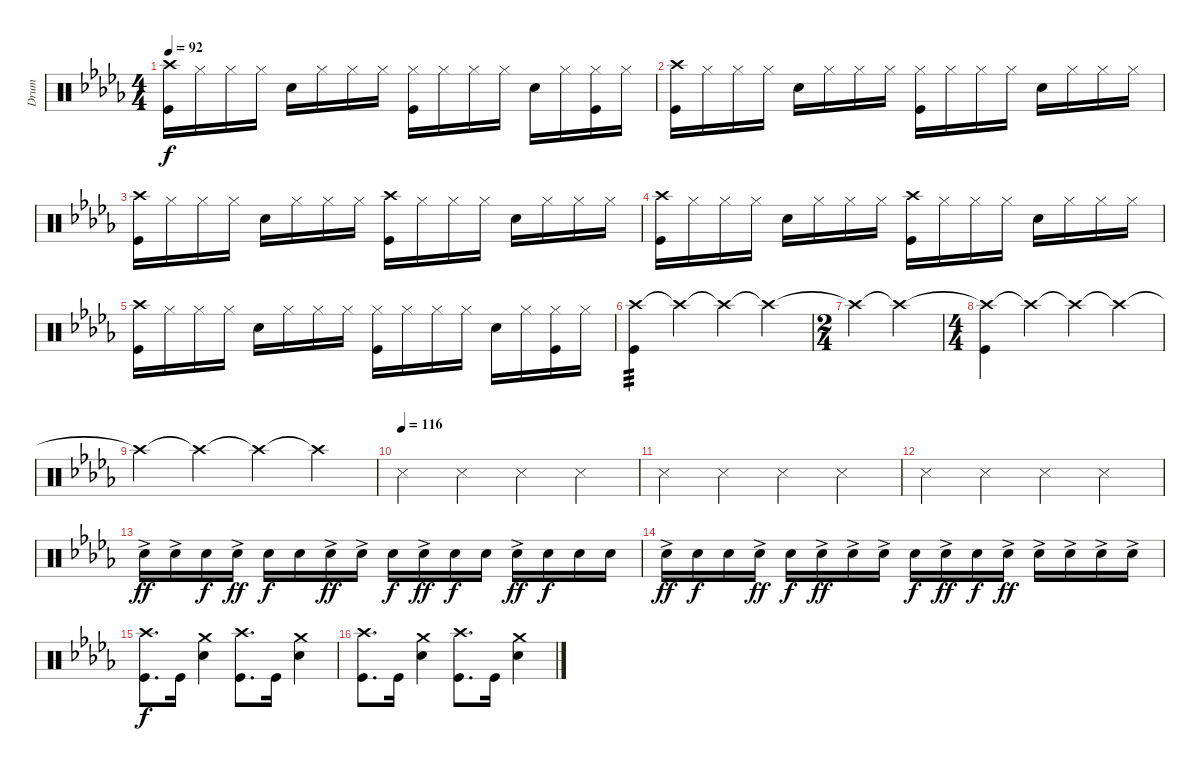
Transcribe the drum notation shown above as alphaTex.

\track ("Drum" "Drum") {instrument percussion}
\staff {score}
\articulation defaults
\ts (4 4)
\tempo 92
\clef neutral
\ks db
("Crash high (hit)" "Kick (hit)").16{dy f} "Hi-Hat (closed)".16 "Hi-Hat (closed)".16 "Hi-Hat (closed)".16 "Snare (hit) 2".16 "Hi-Hat (closed)".16 "Hi-Hat (closed)".16 "Hi-Hat (closed)".16 ("Hi-Hat (closed)" "Kick (hit)").16 "Hi-Hat (closed)".16 "Hi-Hat (closed)".16 "Hi-Hat (closed)".16 "Snare (hit) 2".16 "Hi-Hat (closed)".16 ("Hi-Hat (closed)" "Kick (hit)").16 "Hi-Hat (closed)".16 |
("Crash high (hit)" "Kick (hit)").16 "Hi-Hat (closed)".16 "Hi-Hat (closed)".16 "Hi-Hat (closed)".16 "Snare (hit) 2".16 "Hi-Hat (closed)".16 "Hi-Hat (closed)".16 "Hi-Hat (closed)".16 ("Hi-Hat (closed)" "Kick (hit)").16 "Hi-Hat (closed)".16 "Hi-Hat (closed)".16 "Hi-Hat (closed)".16 "Snare (hit) 2".16 "Hi-Hat (closed)".16 "Hi-Hat (closed)".16 "Hi-Hat (closed)".16 |
("Crash high (hit)" "Kick (hit)").16 "Hi-Hat (closed)".16 "Hi-Hat (closed)".16 "Hi-Hat (closed)".16 "Snare (hit) 2".16 "Hi-Hat (closed)".16 "Hi-Hat (closed)".16 "Hi-Hat (closed)".16 ("Crash high (hit)" "Kick (hit)").16 "Hi-Hat (closed)".16 "Hi-Hat (closed)".16 "Hi-Hat (closed)".16 "Snare (hit) 2".16 "Hi-Hat (closed)".16 "Hi-Hat (closed)".16 "Hi-Hat (closed)".16 |
("Crash high (hit)" "Kick (hit)").16 "Hi-Hat (closed)".16 "Hi-Hat (closed)".16 "Hi-Hat (closed)".16 "Snare (hit) 2".16 "Hi-Hat (closed)".16 "Hi-Hat (closed)".16 "Hi-Hat (closed)".16 ("Crash high (hit)" "Kick (hit)").16 "Hi-Hat (closed)".16 "Hi-Hat (closed)".16 "Hi-Hat (closed)".16 "Snare (hit) 2".16 "Hi-Hat (closed)".16 "Hi-Hat (closed)".16 "Hi-Hat (closed)".16 |
("Crash high (hit)" "Kick (hit)").16 "Hi-Hat (closed)".16 "Hi-Hat (closed)".16 "Hi-Hat (closed)".16 "Snare (hit) 2".16 "Hi-Hat (closed)".16 "Hi-Hat (closed)".16 "Hi-Hat (closed)".16 ("Hi-Hat (closed)" "Kick (hit)").16 "Hi-Hat (closed)".16 "Hi-Hat (closed)".16 "Hi-Hat (closed)".16 "Snare (hit) 2".16 "Hi-Hat (closed)".16 ("Hi-Hat (closed)" "Kick (hit)").16 "Hi-Hat (closed)".16 |
("Crash high (hit)" "Kick (hit)").4{tp 3} "Crash high (hit)"{t}.4 "Crash high (hit)"{t}.4 "Crash high (hit)"{t}.4 |
\ts (2 4)
"Crash high (hit)"{t}.4 "Crash high (hit)"{t}.4 |
\ts (4 4)
("Crash high (hit)"{t} "Kick (hit)").4 "Crash high (hit)"{t}.4 "Crash high (hit)"{t}.4 "Crash high (hit)"{t}.4 |
"Crash high (hit)"{t}.4 "Crash high (hit)"{t}.4 "Crash high (hit)"{t}.4 "Crash high (hit)"{t}.4 |
\tempo (116)
"Metronome (hit)".4 "Metronome (hit)".4 "Metronome (hit)".4 "Metronome (hit)".4 |
"Metronome (hit)".4 "Metronome (hit)".4 "Metronome (hit)".4 "Metronome (hit)".4 |
"Metronome (hit)".4 "Metronome (hit)".4 "Metronome (hit)".4 "Metronome (hit)".4 |
"Snare (hit) 2"{ac}.16{dy ff} "Snare (hit) 2"{ac}.16 "Snare (hit) 2".16{dy f} "Snare (hit) 2"{ac}.16{dy ff} "Snare (hit) 2".16{dy f} "Snare (hit) 2".16 "Snare (hit) 2"{ac}.16{dy ff} "Snare (hit) 2"{ac}.16 "Snare (hit) 2".16{dy f} "Snare (hit) 2"{ac}.16{dy ff} "Snare (hit) 2".16{dy f} "Snare (hit) 2".16 "Snare (hit) 2"{ac}.16{dy ff} "Snare (hit) 2".16{dy f} "Snare (hit) 2".16 "Snare (hit) 2".16 |
"Snare (hit) 2"{ac}.16{dy ff} "Snare (hit) 2".16{dy f} "Snare (hit) 2".16 "Snare (hit) 2"{ac}.16{dy ff} "Snare (hit) 2".16{dy f} "Snare (hit) 2"{ac}.16{dy ff} "Snare (hit) 2"{ac}.16 "Snare (hit) 2"{ac}.16 "Snare (hit) 2".16{dy f} "Snare (hit) 2"{ac}.16{dy ff} "Snare (hit) 2".16{dy f} "Snare (hit) 2"{ac}.16{dy ff} "Snare (hit) 2"{ac}.16 "Snare (hit) 2"{ac}.16 "Snare (hit) 2"{ac}.16 "Snare (hit) 2"{ac}.16 |
("Crash high (hit)" "Kick (hit)").8{d dy f} "Kick (hit)".16 ("Crash medium (hit)" "Snare (hit) 2").4 ("Crash high (hit)" "Kick (hit)").8{d} "Kick (hit)".16 ("Crash medium (hit)" "Snare (hit) 2").4 |
("Crash high (hit)" "Kick (hit)").8{d} "Kick (hit)".16 ("Crash medium (hit)" "Snare (hit) 2").4 ("Crash high (hit)" "Kick (hit)").8{d} "Kick (hit)".16 ("Crash medium (hit)" "Snare (hit) 2").4
